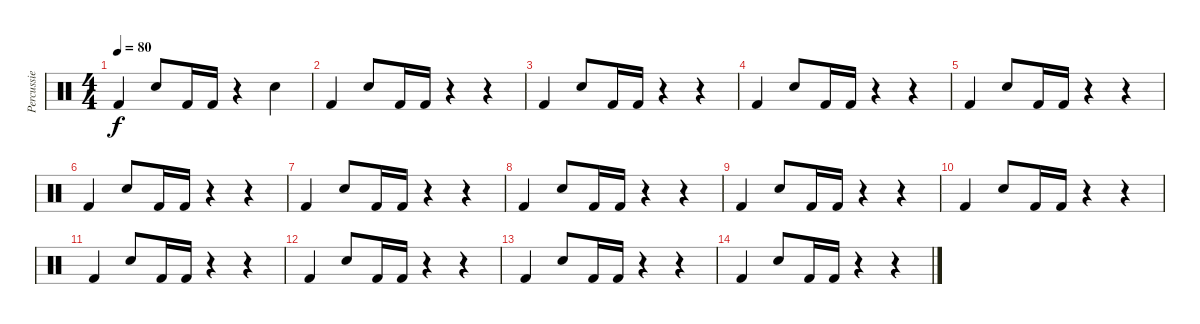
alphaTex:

\track ("Percussie" "Percussie") {instrument percussion}
\staff {score}
\articulation defaults
\ts (4 4)
\tempo 80
\clef neutral
\ks c "Kick (hit) 2".4{dy f} "Electric Snare (hit)".8 "Kick (hit) 2".16 "Kick (hit) 2".16
r.4 "Electric Snare (hit)".4 |
"Kick (hit) 2".4 "Electric Snare (hit)".8 "Kick (hit) 2".16 "Kick (hit) 2".16 r.4 r.4 |
"Kick (hit) 2".4 "Electric Snare (hit)".8 "Kick (hit) 2".16 "Kick (hit) 2".16 r.4 r.4 |
"Kick (hit) 2".4 "Electric Snare (hit)".8 "Kick (hit) 2".16 "Kick (hit) 2".16 r.4 r.4 |
"Kick (hit) 2".4 "Electric Snare (hit)".8 "Kick (hit) 2".16 "Kick (hit) 2".16 r.4 r.4 |
"Kick (hit) 2".4 "Electric Snare (hit)".8 "Kick (hit) 2".16 "Kick (hit) 2".16 r.4 r.4 |
"Kick (hit) 2".4 "Electric Snare (hit)".8 "Kick (hit) 2".16 "Kick (hit) 2".16 r.4 r.4 |
"Kick (hit) 2".4 "Electric Snare (hit)".8 "Kick (hit) 2".16 "Kick (hit) 2".16 r.4 r.4 |
"Kick (hit) 2".4 "Electric Snare (hit)".8 "Kick (hit) 2".16 "Kick (hit) 2".16 r.4 r.4 |
"Kick (hit) 2".4 "Electric Snare (hit)".8 "Kick (hit) 2".16 "Kick (hit) 2".16 r.4 r.4 |
"Kick (hit) 2".4 "Electric Snare (hit)".8 "Kick (hit) 2".16 "Kick (hit) 2".16 r.4 r.4 |
"Kick (hit) 2".4 "Electric Snare (hit)".8 "Kick (hit) 2".16 "Kick (hit) 2".16 r.4 r.4 |
"Kick (hit) 2".4 "Electric Snare (hit)".8 "Kick (hit) 2".16 "Kick (hit) 2".16 r.4 r.4 |
"Kick (hit) 2".4 "Electric Snare (hit)".8 "Kick (hit) 2".16 "Kick (hit) 2".16 r.4 r.4
